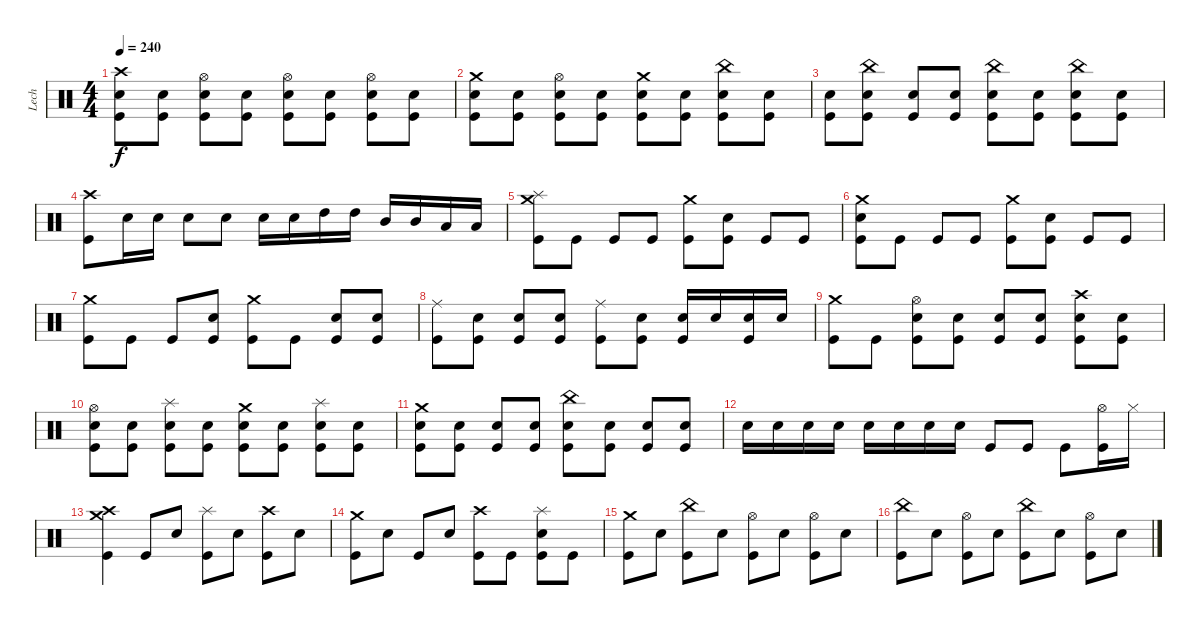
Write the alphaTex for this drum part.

\track ("Lech" "Lech") {instrument percussion}
\staff {score}
\articulation defaults
\ts (4 4)
\tempo 240
\clef neutral
\ks c
("Crash high (hit)" "Snare (hit) 2" "Kick (hit)").8{dy f} ("Snare (hit) 2" "Kick (hit)").8 ("Hi-Hat (open)" "Snare (hit) 2" "Kick (hit)").8 ("Snare (hit) 2" "Kick (hit)").8 ("Hi-Hat (open)" "Snare (hit) 2" "Kick (hit)").8 ("Snare (hit) 2" "Kick (hit)").8 ("Hi-Hat (open)" "Snare (hit) 2" "Kick (hit)").8 ("Snare (hit) 2" "Kick (hit)").8 |
("Crash medium (hit)" "Snare (hit) 2" "Kick (hit)").8 ("Snare (hit) 2" "Kick (hit)").8 ("Hi-Hat (open)" "Snare (hit) 2" "Kick (hit)").8 ("Snare (hit) 2" "Kick (hit)").8 ("Crash medium (hit)" "Snare (hit) 2" "Kick (hit)").8 ("Snare (hit) 2" "Kick (hit)").8 ("China (hit)" "Snare (hit) 2" "Kick (hit)").8 ("Snare (hit) 2" "Kick (hit)").8 |
("Snare (hit) 2" "Kick (hit)").8 ("China (hit)" "Snare (hit) 2" "Kick (hit)").8 ("Snare (hit) 2" "Kick (hit)").8 ("Snare (hit) 2" "Kick (hit)").8 ("China (hit)" "Snare (hit) 2" "Kick (hit)").8 ("Snare (hit) 2" "Kick (hit)").8 ("China (hit)" "Snare (hit) 2" "Kick (hit)").8 ("Snare (hit) 2" "Kick (hit)").8 |
("Crash high (hit)" "Kick (hit)").8 "Snare (hit) 2".16 "Snare (hit) 2".16 "Snare (hit) 2".8 "Snare (hit) 2".8 "Snare (hit) 2".16 "Snare (hit) 2".16 "High Tom (hit)".16 "High Tom (hit)".16 "Mid Tom (hit)".16 "Mid Tom (hit)".16 "Low Tom (hit)".16 "Low Tom (hit)".16 |
("Crash medium (hit)" "Splash (hit)" "Kick (hit)").8 "Kick (hit)".8 "Kick (hit)".8 "Kick (hit)".8 ("Crash medium (hit)" "Kick (hit)").8 ("Snare (hit) 2" "Kick (hit)").8 "Kick (hit)".8 "Kick (hit)".8 |
("Crash medium (hit)" "Snare (hit) 2" "Kick (hit)").8 "Kick (hit)".8 "Kick (hit)".8 "Kick (hit)".8 ("Crash medium (hit)" "Kick (hit)").8 ("Snare (hit) 2" "Kick (hit)").8 "Kick (hit)".8 "Kick (hit)".8 |
("Crash medium (hit)" "Kick (hit)").8 "Kick (hit)".8 "Kick (hit)".8 ("Snare (hit) 2" "Kick (hit)").8 ("Crash medium (hit)" "Kick (hit)").8 "Kick (hit)".8 ("Snare (hit) 2" "Kick (hit)").8 ("Snare (hit) 2" "Kick (hit)").8 |
("Ride (middle)" "Kick (hit)").8 ("Snare (hit) 2" "Kick (hit)").8 ("Snare (hit) 2" "Kick (hit)").8 ("Snare (hit) 2" "Kick (hit)").8 ("Ride (middle)" "Kick (hit)").8 ("Snare (hit) 2" "Kick (hit)").8 ("Snare (hit) 2" "Kick (hit)").16 "Snare (hit) 2".16 ("Snare (hit) 2" "Kick (hit)").16 "Snare (hit) 2".16 |
("Crash medium (hit)" "Kick (hit)").8 "Kick (hit)".8 ("Hi-Hat (open)" "Snare (hit) 2" "Kick (hit)").8 ("Snare (hit) 2" "Kick (hit)").8 ("Snare (hit) 2" "Kick (hit)").8 ("Snare (hit) 2" "Kick (hit)").8 ("Crash high (hit)" "Snare (hit) 2" "Kick (hit)").8 ("Snare (hit) 2" "Kick (hit)").8 |
("Hi-Hat (open)" "Snare (hit) 2" "Kick (hit)").8 ("Snare (hit) 2" "Kick (hit)").8 ("Splash (hit)" "Snare (hit) 2" "Kick (hit)").8 ("Snare (hit) 2" "Kick (hit)").8 ("Crash medium (hit)" "Snare (hit) 2" "Kick (hit)").8 ("Snare (hit) 2" "Kick (hit)").8 ("Splash (hit)" "Snare (hit) 2" "Kick (hit)").8 ("Snare (hit) 2" "Kick (hit)").8 |
("Crash medium (hit)" "Snare (hit) 2" "Kick (hit)").8 ("Snare (hit) 2" "Kick (hit)").8 ("Snare (hit) 2" "Kick (hit)").8 ("Snare (hit) 2" "Kick (hit)").8 ("China (hit)" "Snare (hit) 2" "Kick (hit)").8 ("Snare (hit) 2" "Kick (hit)").8 ("Snare (hit) 2" "Kick (hit)").8 ("Snare (hit) 2" "Kick (hit)").8 |
"Snare (hit) 2".16 "Snare (hit) 2".16 "Snare (hit) 2".16 "Snare (hit) 2".16 "Snare (hit) 2".16 "Snare (hit) 2".16 "Snare (hit) 2".16 "Snare (hit) 2".16 "Kick (hit)".8 "Kick (hit)".8 "Kick (hit)".8 ("Hi-Hat (open)" "Kick (hit)").16 "Hi-Hat (closed)".16 |
("Crash high (hit)" "Crash medium (hit)" "Kick (hit)").4 "Kick (hit)".8 "Snare (hit) 2".8 ("Splash (hit)" "Kick (hit)").8 "Snare (hit) 2".8 ("Crash high (hit)" "Kick (hit)").8 "Snare (hit) 2".8 |
("Crash medium (hit)" "Kick (hit)").8 "Snare (hit) 2".8 "Kick (hit)".8 "Snare (hit) 2".8 ("Crash high (hit)" "Kick (hit)").8 "Kick (hit)".8 ("Splash (hit)" "Snare (hit) 2" "Kick (hit)").8 "Kick (hit)".8 |
("Crash medium (hit)" "Kick (hit)").8 "Snare (hit) 2".8 ("China (hit)" "Kick (hit)").8 "Snare (hit) 2".8 ("Hi-Hat (open)" "Kick (hit)").8 "Snare (hit) 2".8 ("Hi-Hat (open)" "Kick (hit)").8 "Snare (hit) 2".8 |
("China (hit)" "Kick (hit)").8 "Snare (hit) 2".8 ("Hi-Hat (open)" "Kick (hit)").8 "Snare (hit) 2".8 ("China (hit)" "Kick (hit)").8 "Snare (hit) 2".8 ("Hi-Hat (open)" "Kick (hit)").8 "Snare (hit) 2".8
